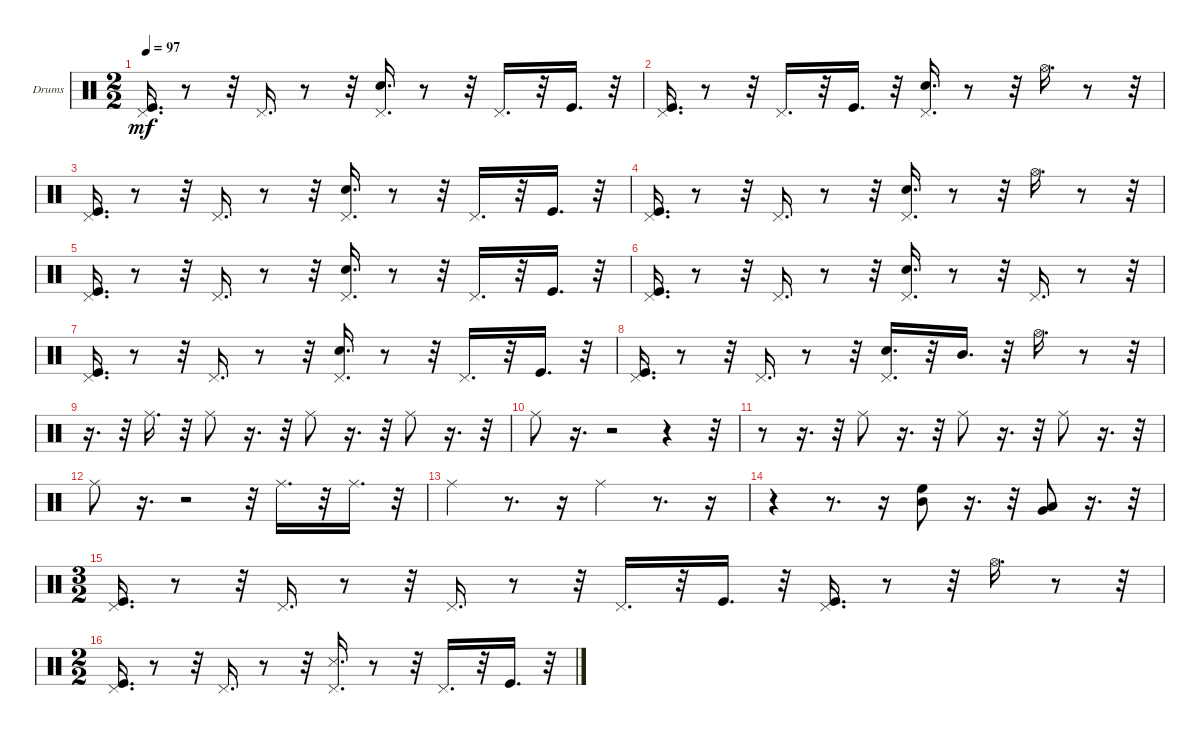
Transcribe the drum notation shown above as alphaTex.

\bracketExtendMode groupsimilarinstruments
\firstSystemTrackNameOrientation horizontal
\otherSystemsTrackNameOrientation horizontal
\track ("Percusion" "Drums") {instrument percussion}
\staff {score}
\articulation defaults
\ts (2 2)
\tempo 97
\clef neutral
\ks c
("Pedal Hi-Hat (hit)" "Kick (hit)").16{d dy mf} r.8 r.32 "Pedal Hi-Hat (hit)".16{d} r.8 r.32 ("Pedal Hi-Hat (hit)" "Snare (hit) 2").16{d} r.8 r.32 "Pedal Hi-Hat (hit)".16{d} r.32 "Kick (hit)".16{d} r.32 |
("Pedal Hi-Hat (hit)" "Kick (hit)").16{d} r.8 r.32 "Pedal Hi-Hat (hit)".16{d} r.32 "Kick (hit)".16{d} r.32 ("Pedal Hi-Hat (hit)" "Snare (hit) 2").16{d} r.8 r.32 "Hi-Hat (open)".16{d} r.8 r.32 |
("Pedal Hi-Hat (hit)" "Kick (hit)").16{d} r.8 r.32 "Pedal Hi-Hat (hit)".16{d} r.8 r.32 ("Pedal Hi-Hat (hit)" "Snare (hit) 2").16{d} r.8 r.32 "Pedal Hi-Hat (hit)".16{d} r.32 "Kick (hit)".16{d} r.32 |
("Pedal Hi-Hat (hit)" "Kick (hit)").16{d} r.8 r.32 "Pedal Hi-Hat (hit)".16{d} r.8 r.32 ("Pedal Hi-Hat (hit)" "Snare (hit) 2").16{d} r.8 r.32 "Hi-Hat (open)".16{d} r.8 r.32 |
("Pedal Hi-Hat (hit)" "Kick (hit)").16{d} r.8 r.32 "Pedal Hi-Hat (hit)".16{d} r.8 r.32 ("Pedal Hi-Hat (hit)" "Snare (hit) 2").16{d} r.8 r.32 "Pedal Hi-Hat (hit)".16{d} r.32 "Kick (hit)".16{d} r.32 |
("Pedal Hi-Hat (hit)" "Kick (hit)").16{d} r.8 r.32 "Pedal Hi-Hat (hit)".16{d} r.8 r.32 ("Pedal Hi-Hat (hit)" "Snare (hit) 2").16{d} r.8 r.32 "Pedal Hi-Hat (hit)".16{d} r.8 r.32 |
("Pedal Hi-Hat (hit)" "Kick (hit)").16{d} r.8 r.32 "Pedal Hi-Hat (hit)".16{d} r.8 r.32 ("Pedal Hi-Hat (hit)" "Snare (hit) 2").16{d} r.8 r.32 "Pedal Hi-Hat (hit)".16{d} r.32 "Kick (hit)".16{d} r.32 |
("Pedal Hi-Hat (hit)" "Kick (hit)").16{d} r.8 r.32 "Pedal Hi-Hat (hit)".16{d} r.8 r.32 ("Pedal Hi-Hat (hit)" "Snare (hit) 2").16{d} r.32 "Mid Tom (hit)".16{d} r.32 "Hi-Hat (open)".16{d} r.8 r.32 |
r.16{d} r.32 "Ride (middle)".16{d} r.32 "Ride (middle)".8 r.16{d} r.32 "Ride (middle)".8 r.16{d} r.32 "Ride (middle)".8 r.16{d} r.32 |
"Ride (middle)".8 r.16{d} r.2 r.4 r.32 |
r.8 r.16{d} r.32 "Ride (middle)".8 r.16{d} r.32 "Ride (middle)".8 r.16{d} r.32 "Ride (middle)".8 r.16{d} r.32 |
"Ride (middle)".8 r.16{d} r.2 r.32 "Ride (middle)".16{d} r.32 "Ride (middle)".16{d} r.32 |
"Ride (middle)".4 r.8{d} r.16 "Ride (middle)".4 r.8{d} r.16 |
r.4 r.8{d} r.16 ("High Floor Tom (hit)" "Mid Tom (hit)").8 r.16{d} r.32 ("Low Tom (hit)" "Very Low Tom (hit)").8 r.16{d} r.32 |
\ts (3 2)
("Pedal Hi-Hat (hit)" "Kick (hit)").16{d} r.8 r.32 "Pedal Hi-Hat (hit)".16{d} r.8 r.32 "Pedal Hi-Hat (hit)".16{d} r.8 r.32 "Pedal Hi-Hat (hit)".16{d} r.32 "Kick (hit)".16{d} r.32 ("Pedal Hi-Hat (hit)" "Kick (hit)").16{d} r.8 r.32 "Hi-Hat (open)".16{d} r.8 r.32 |
\ts (2 2)
("Pedal Hi-Hat (hit)" "Kick (hit)").16{d} r.8 r.32 "Pedal Hi-Hat (hit)".16{d} r.8 r.32 ("Pedal Hi-Hat (hit)" "Snare (side stick) 3").16{d} r.8 r.32 "Pedal Hi-Hat (hit)".16{d} r.32 "Kick (hit)".16{d} r.32
